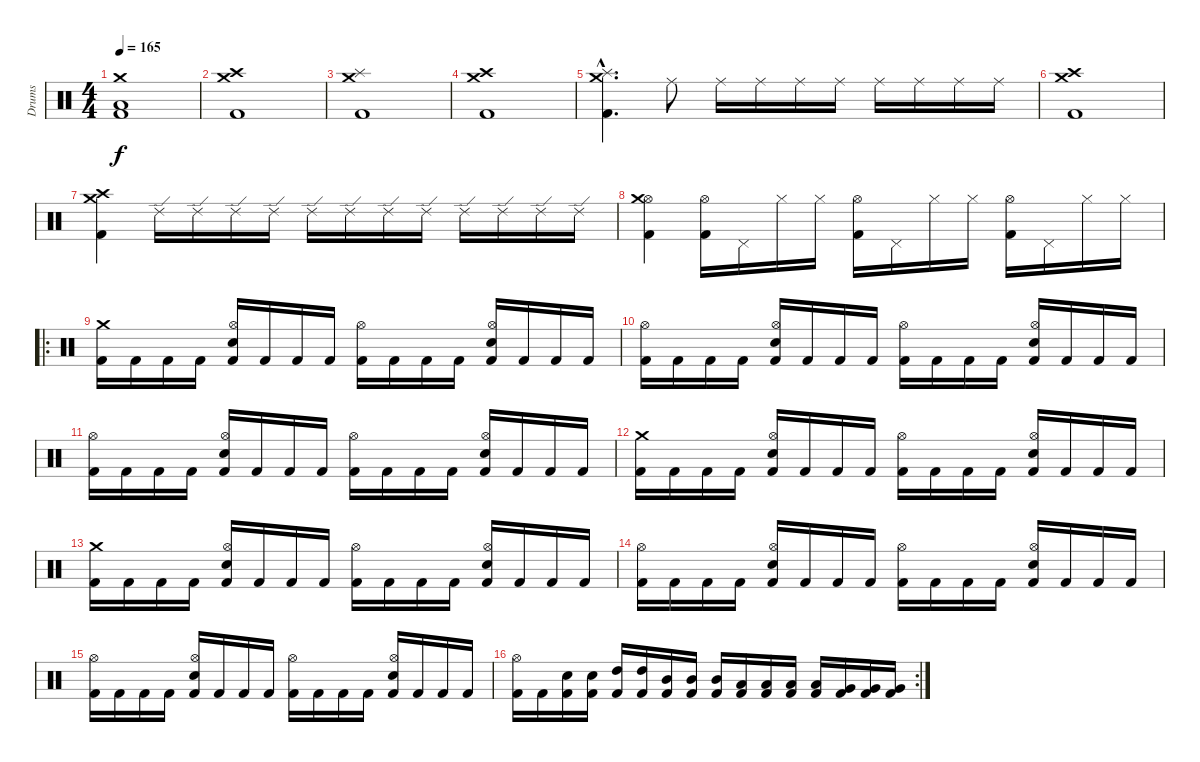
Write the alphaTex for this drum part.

\track ("Drums" "Drums") {instrument percussion}
\staff {score}
\articulation defaults
\ts (4 4)
\tempo 165
\clef neutral
\ks c
("Kick (hit) 2" "Low Floor Tom (hit)" "Crash medium (hit)").1{dy f} |
("Kick (hit) 2" "Crash high (hit)" "Crash medium (hit)").1 |
("Kick (hit) 2" "Splash (hit)" "Crash medium (hit)").1 |
("Kick (hit) 2" "Crash high (hit)" "Crash medium (hit)").1 |
("Kick (hit) 2"{hac} "Splash (hit)"{hac} "Crash medium (hit)"{hac}).4{d} "Ride (middle)".8 "Ride (middle)".16 "Ride (middle)".16 "Ride (middle)".16 "Ride (middle)".16 "Ride (middle)".16 "Ride (middle)".16 "Ride (middle)".16 "Ride (middle)".16 |
("Kick (hit) 2" "Crash high (hit)" "Crash medium (hit)").1 |
("Kick (hit) 2" "Crash high (hit)" "Crash medium (hit)").4 "Ride (edge) 2".16 "Ride (edge) 2".16 "Ride (edge) 2".16 "Ride (edge) 2".16 "Ride (edge) 2".16 "Ride (edge) 2".16 "Ride (edge) 2".16 "Ride (edge) 2".16 "Ride (edge) 2".16 "Ride (edge) 2".16 "Ride (edge) 2".16 "Ride (edge) 2".16 |
("Kick (hit) 2" "Hi-Hat (open)" "Crash medium (hit)").4 ("Kick (hit) 2" "Hi-Hat (open)").16 "Pedal Hi-Hat (hit)".16 "Hi-Hat (closed)".16 "Hi-Hat (closed)".16 ("Kick (hit) 2" "Hi-Hat (open)").16 "Pedal Hi-Hat (hit)".16 "Hi-Hat (closed)".16 "Hi-Hat (closed)".16 ("Kick (hit) 2" "Hi-Hat (open)").16 "Pedal Hi-Hat (hit)".16 "Hi-Hat (closed)".16 "Hi-Hat (closed)".16 |
\ro
("Kick (hit) 2" "Crash medium (hit)").16 "Kick (hit) 2".16 "Kick (hit) 2".16 "Kick (hit) 2".16 ("Kick (hit) 2" "Electric Snare (hit)" "Hi-Hat (open)").16 "Kick (hit) 2".16 "Kick (hit) 2".16 "Kick (hit) 2".16 ("Kick (hit) 2" "Hi-Hat (open)").16 "Kick (hit) 2".16 "Kick (hit) 2".16 "Kick (hit) 2".16 ("Kick (hit) 2" "Electric Snare (hit)" "Hi-Hat (open)").16 "Kick (hit) 2".16 "Kick (hit) 2".16 "Kick (hit) 2".16 |
("Kick (hit) 2" "Hi-Hat (open)").16 "Kick (hit) 2".16 "Kick (hit) 2".16 "Kick (hit) 2".16 ("Kick (hit) 2" "Electric Snare (hit)" "Hi-Hat (open)").16 "Kick (hit) 2".16 "Kick (hit) 2".16 "Kick (hit) 2".16 ("Kick (hit) 2" "Hi-Hat (open)").16 "Kick (hit) 2".16 "Kick (hit) 2".16 "Kick (hit) 2".16 ("Kick (hit) 2" "Electric Snare (hit)" "Hi-Hat (open)").16 "Kick (hit) 2".16 "Kick (hit) 2".16 "Kick (hit) 2".16 |
("Kick (hit) 2" "Hi-Hat (open)").16 "Kick (hit) 2".16 "Kick (hit) 2".16 "Kick (hit) 2".16 ("Kick (hit) 2" "Electric Snare (hit)" "Hi-Hat (open)").16 "Kick (hit) 2".16 "Kick (hit) 2".16 "Kick (hit) 2".16 ("Kick (hit) 2" "Hi-Hat (open)").16 "Kick (hit) 2".16 "Kick (hit) 2".16 "Kick (hit) 2".16 ("Kick (hit) 2" "Electric Snare (hit)" "Hi-Hat (open)").16 "Kick (hit) 2".16 "Kick (hit) 2".16 "Kick (hit) 2".16 |
("Kick (hit) 2" "Crash medium (hit)").16 "Kick (hit) 2".16 "Kick (hit) 2".16 "Kick (hit) 2".16 ("Kick (hit) 2" "Electric Snare (hit)" "Hi-Hat (open)").16 "Kick (hit) 2".16 "Kick (hit) 2".16 "Kick (hit) 2".16 ("Kick (hit) 2" "Hi-Hat (open)").16 "Kick (hit) 2".16 "Kick (hit) 2".16 "Kick (hit) 2".16 ("Kick (hit) 2" "Electric Snare (hit)" "Hi-Hat (open)").16 "Kick (hit) 2".16 "Kick (hit) 2".16 "Kick (hit) 2".16 |
("Kick (hit) 2" "Crash medium (hit)").16 "Kick (hit) 2".16 "Kick (hit) 2".16 "Kick (hit) 2".16 ("Kick (hit) 2" "Electric Snare (hit)" "Hi-Hat (open)").16 "Kick (hit) 2".16 "Kick (hit) 2".16 "Kick (hit) 2".16 ("Kick (hit) 2" "Hi-Hat (open)").16 "Kick (hit) 2".16 "Kick (hit) 2".16 "Kick (hit) 2".16 ("Kick (hit) 2" "Electric Snare (hit)" "Hi-Hat (open)").16 "Kick (hit) 2".16 "Kick (hit) 2".16 "Kick (hit) 2".16 |
("Kick (hit) 2" "Hi-Hat (open)").16 "Kick (hit) 2".16 "Kick (hit) 2".16 "Kick (hit) 2".16 ("Kick (hit) 2" "Electric Snare (hit)" "Hi-Hat (open)").16 "Kick (hit) 2".16 "Kick (hit) 2".16 "Kick (hit) 2".16 ("Kick (hit) 2" "Hi-Hat (open)").16 "Kick (hit) 2".16 "Kick (hit) 2".16 "Kick (hit) 2".16 ("Kick (hit) 2" "Electric Snare (hit)" "Hi-Hat (open)").16 "Kick (hit) 2".16 "Kick (hit) 2".16 "Kick (hit) 2".16 |
("Kick (hit) 2" "Hi-Hat (open)").16 "Kick (hit) 2".16 "Kick (hit) 2".16 "Kick (hit) 2".16 ("Kick (hit) 2" "Electric Snare (hit)" "Hi-Hat (open)").16 "Kick (hit) 2".16 "Kick (hit) 2".16 "Kick (hit) 2".16 ("Kick (hit) 2" "Hi-Hat (open)").16 "Kick (hit) 2".16 "Kick (hit) 2".16 "Kick (hit) 2".16 ("Kick (hit) 2" "Electric Snare (hit)" "Hi-Hat (open)").16 "Kick (hit) 2".16 "Kick (hit) 2".16 "Kick (hit) 2".16 |
\rc 2
("Kick (hit) 2" "Hi-Hat (open)").16 "Kick (hit) 2".16 ("Kick (hit) 2" "Electric Snare (hit)").16 ("Kick (hit) 2" "Electric Snare (hit)").16 ("Kick (hit) 2" "High Tom (hit)").16 ("Kick (hit) 2" "High Tom (hit)").16 ("Kick (hit) 2" "Mid Tom (hit)").16 ("Kick (hit) 2" "Mid Tom (hit)").16 ("Kick (hit) 2" "Mid Tom (hit)").16 ("Kick (hit) 2" "Low Tom (hit)").16 ("Kick (hit) 2" "Low Tom (hit)").16 ("Kick (hit) 2" "Low Tom (hit)").16 ("Kick (hit) 2" "Low Tom (hit)").16 ("Kick (hit) 2" "Very Low Tom (hit)").16 ("Kick (hit) 2" "Very Low Tom (hit)").16 ("Kick (hit) 2" "Very Low Tom (hit)").16
